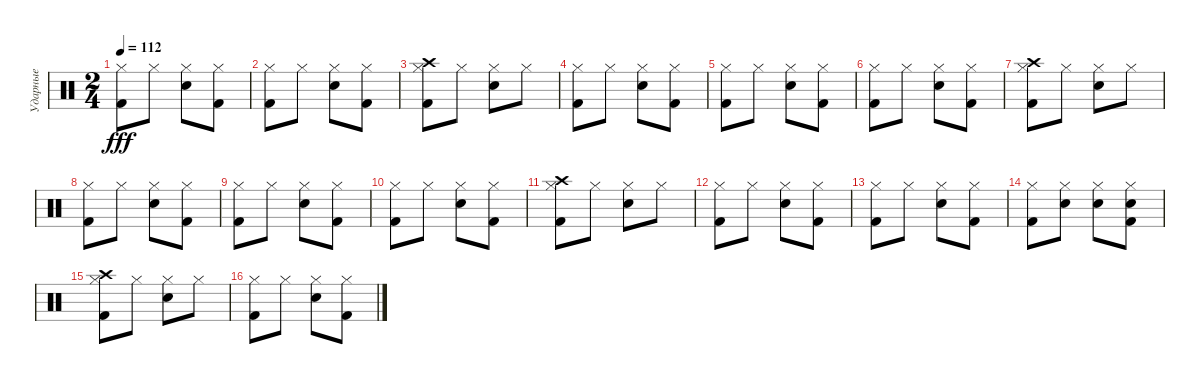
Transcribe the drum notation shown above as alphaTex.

\track ("Ударные" "Ударные") {instrument percussion}
\staff {score}
\articulation defaults
\ts (2 4)
\tempo 112
\clef neutral
\ks c
("Kick (hit) 2" "Hi-Hat (closed)").8{dy fff} "Hi-Hat (closed)".8 ("Electric Snare (hit)" "Hi-Hat (closed)").8 ("Hi-Hat (closed)" "Kick (hit) 2").8 |
("Kick (hit) 2" "Hi-Hat (closed)").8 "Hi-Hat (closed)".8 ("Electric Snare (hit)" "Hi-Hat (closed)").8 ("Kick (hit) 2" "Hi-Hat (closed)").8 |
("Kick (hit) 2" "Crash high (hit)" "Hi-Hat (closed)").8 "Hi-Hat (closed)".8 ("Electric Snare (hit)" "Hi-Hat (closed)").8 "Hi-Hat (closed)".8 |
("Kick (hit) 2" "Hi-Hat (closed)").8 "Hi-Hat (closed)".8 ("Electric Snare (hit)" "Hi-Hat (closed)").8 ("Hi-Hat (closed)" "Kick (hit) 2").8 |
("Kick (hit) 2" "Hi-Hat (closed)").8 "Hi-Hat (closed)".8 ("Electric Snare (hit)" "Hi-Hat (closed)").8 ("Hi-Hat (closed)" "Kick (hit) 2").8 |
("Kick (hit) 2" "Hi-Hat (closed)").8 "Hi-Hat (closed)".8 ("Electric Snare (hit)" "Hi-Hat (closed)").8 ("Hi-Hat (closed)" "Kick (hit) 2").8 |
("Kick (hit) 2" "Hi-Hat (closed)" "Crash high (hit)").8 "Hi-Hat (closed)".8 ("Electric Snare (hit)" "Hi-Hat (closed)").8 "Hi-Hat (closed)".8 |
("Kick (hit) 2" "Hi-Hat (closed)").8 "Hi-Hat (closed)".8 ("Electric Snare (hit)" "Hi-Hat (closed)").8 ("Kick (hit) 2" "Hi-Hat (closed)").8 |
("Kick (hit) 2" "Hi-Hat (closed)").8 "Hi-Hat (closed)".8 ("Electric Snare (hit)" "Hi-Hat (closed)").8 ("Kick (hit) 2" "Hi-Hat (closed)").8 |
("Kick (hit) 2" "Hi-Hat (closed)").8 "Hi-Hat (closed)".8 ("Electric Snare (hit)" "Hi-Hat (closed)").8 ("Hi-Hat (closed)" "Kick (hit) 2").8 |
("Kick (hit) 2" "Crash high (hit)" "Hi-Hat (closed)").8 "Hi-Hat (closed)".8 ("Electric Snare (hit)" "Hi-Hat (closed)").8 "Hi-Hat (closed)".8 |
("Kick (hit) 2" "Hi-Hat (closed)").8 "Hi-Hat (closed)".8 ("Electric Snare (hit)" "Hi-Hat (closed)").8 ("Kick (hit) 2" "Hi-Hat (closed)").8 |
("Kick (hit) 2" "Hi-Hat (closed)").8 "Hi-Hat (closed)".8 ("Electric Snare (hit)" "Hi-Hat (closed)").8 ("Kick (hit) 2" "Hi-Hat (closed)").8 |
("Kick (hit) 2" "Hi-Hat (closed)").8 ("Electric Snare (hit)" "Hi-Hat (closed)").8 ("Hi-Hat (closed)" "Electric Snare (hit)").8 ("Electric Snare (hit)" "Hi-Hat (closed)" "Kick (hit) 2").8 |
("Kick (hit) 2" "Crash high (hit)" "Hi-Hat (closed)").8 "Hi-Hat (closed)".8 ("Electric Snare (hit)" "Hi-Hat (closed)").8 "Hi-Hat (closed)".8 |
("Kick (hit) 2" "Hi-Hat (closed)").8 "Hi-Hat (closed)".8 ("Electric Snare (hit)" "Hi-Hat (closed)").8 ("Hi-Hat (closed)" "Kick (hit) 2").8
